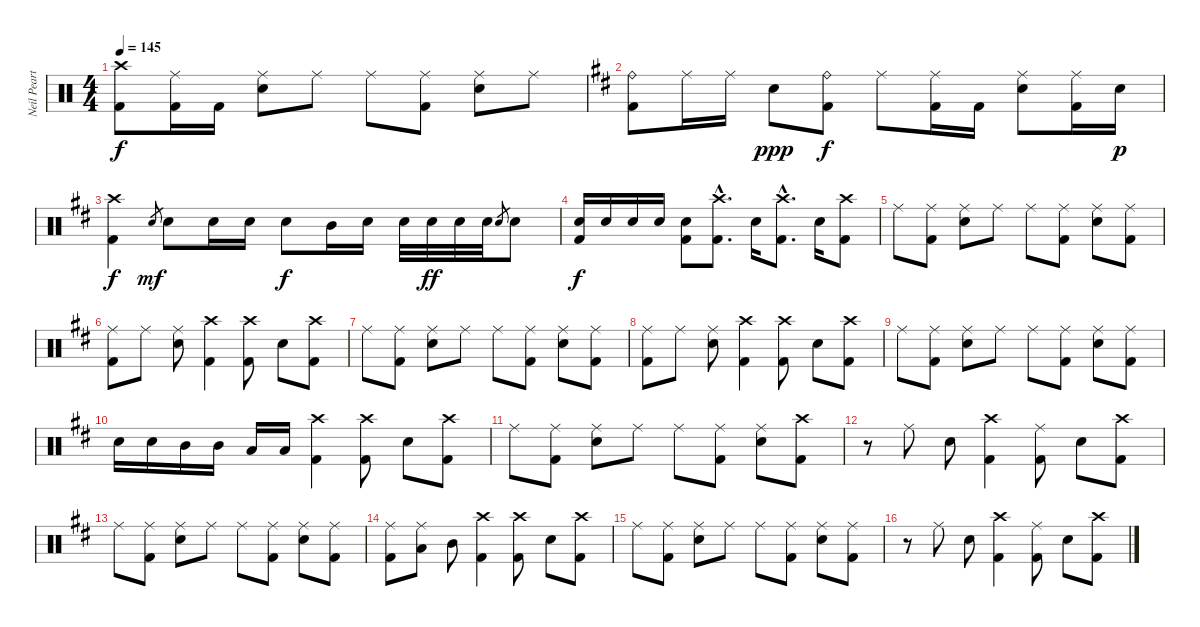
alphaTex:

\track ("Neil Peart" "Neil Peart") {instrument percussion}
\staff {score}
\articulation defaults
\ts (4 4)
\tempo 145
\clef neutral
\ks c
("Crash high (hit)" "Kick (hit) 2").8{dy f} ("Ride (middle)" "Kick (hit) 2").16 "Kick (hit) 2".16 ("Ride (middle)" "Snare (hit) 2").8 "Ride (middle)".8 "Ride (middle)".8 ("Ride (middle)" "Kick (hit) 2").8 ("Ride (middle)" "Snare (hit) 2").8 "Ride (middle)".8 |
\ks d
("Ride (bell)" "Kick (hit) 2").8 "Ride (middle)".16 "Ride (middle)".16 "Snare (hit) 2".8{dy ppp} ("Ride (bell)" "Kick (hit) 2").8{dy f} "Ride (middle)".8 ("Ride (middle)" "Kick (hit) 2").16 "Kick (hit) 2".16 ("Ride (middle)" "Snare (hit) 2").8 ("Ride (middle)" "Kick (hit) 2").16 "Snare (hit) 2".16{dy p} |
("Crash high (hit)" "Kick (hit) 2").4{dy f} "Snare (hit) 2".8{gr dy mf} "Snare (hit) 2".8 "Snare (hit) 2".16 "Snare (hit) 2".16 "Snare (hit) 2".8{dy f} "Mid Tom (hit)".16 "Snare (hit) 2".16 "Snare (hit) 2".32 "Snare (hit) 2".32{dy ff} "Snare (hit) 2".32 "Snare (hit) 2".32 "Snare (hit) 2".8{gr} "Snare (hit) 2".8 |
("Snare (hit) 2" "Kick (hit) 2").16{dy f} "Snare (hit) 2".16 "Snare (hit) 2".16 "Snare (hit) 2".16 ("Snare (hit) 2" "Kick (hit) 2").8 ("Crash high (hit)"{hac} "Kick (hit) 2"{hac}).8{d} "Snare (hit) 2".16 ("Crash high (hit)"{hac} "Kick (hit) 2"{hac}).8{d} "Snare (hit) 2".16 ("Crash high (hit)" "Kick (hit) 2").8 |
"Ride (middle)".8 ("Ride (middle)" "Kick (hit) 2").8 ("Ride (middle)" "Snare (hit) 2").8 "Ride (middle)".8 "Ride (middle)".8 ("Ride (middle)" "Kick (hit) 2").8 ("Ride (middle)" "Snare (hit) 2").8 ("Ride (middle)" "Kick (hit) 2").8 |
("Ride (middle)" "Kick (hit) 2").8 "Ride (middle)".8 ("Ride (middle)" "Snare (hit) 2").8 ("Crash high (hit)" "Kick (hit) 2").4 ("Crash high (hit)" "Kick (hit) 2").8 "Snare (hit) 2".8 ("Crash high (hit)" "Kick (hit) 2").8 |
"Ride (middle)".8 ("Ride (middle)" "Kick (hit) 2").8 ("Ride (middle)" "Snare (hit) 2").8 "Ride (middle)".8 "Ride (middle)".8 ("Ride (middle)" "Kick (hit) 2").8 ("Ride (middle)" "Snare (hit) 2").8 ("Ride (middle)" "Kick (hit) 2").8 |
("Ride (middle)" "Kick (hit) 2").8 "Ride (middle)".8 ("Ride (middle)" "Snare (hit) 2").8 ("Crash high (hit)" "Kick (hit) 2").4 ("Crash high (hit)" "Kick (hit) 2").8 "Snare (hit) 2".8 ("Crash high (hit)" "Kick (hit) 2").8 |
"Ride (middle)".8 ("Ride (middle)" "Kick (hit) 2").8 ("Ride (middle)" "Snare (hit) 2").8 "Ride (middle)".8 "Ride (middle)".8 ("Ride (middle)" "Kick (hit) 2").8 ("Ride (middle)" "Snare (hit) 2").8 ("Ride (middle)" "Kick (hit) 2").8 |
"Snare (hit) 2".16 "Snare (hit) 2".16 "Mid Tom (hit)".16 "Mid Tom (hit)".16 "Low Tom (hit)".16 "Low Tom (hit)".16 ("Crash high (hit)" "Kick (hit) 2").4 ("Crash high (hit)" "Kick (hit) 2").8 "Snare (hit) 2".8 ("Crash high (hit)" "Kick (hit) 2").8 |
"Ride (middle)".8 ("Ride (middle)" "Kick (hit) 2").8 ("Ride (middle)" "Snare (hit) 2").8 "Ride (middle)".8 "Ride (middle)".8 ("Ride (middle)" "Kick (hit) 2").8 ("Ride (middle)" "Snare (hit) 2").8 ("Crash high (hit)" "Kick (hit) 2").8 |
r.8 "Ride (middle)".8 "Snare (hit) 2".8 ("Crash high (hit)" "Kick (hit) 2").4 ("Ride (middle)" "Kick (hit) 2").8 "Snare (hit) 2".8 ("Crash high (hit)" "Kick (hit) 2").8 |
"Ride (middle)".8 ("Ride (middle)" "Kick (hit) 2").8 ("Ride (middle)" "Snare (hit) 2").8 "Ride (middle)".8 "Ride (middle)".8 ("Ride (middle)" "Kick (hit) 2").8 ("Ride (middle)" "Snare (hit) 2").8 ("Ride (middle)" "Kick (hit) 2").8 |
("Ride (middle)" "Kick (hit) 2").8 ("Ride (middle)" "Low Tom (hit)").8 "Mid Tom (hit)".8 ("Crash high (hit)" "Kick (hit) 2").4 ("Crash high (hit)" "Kick (hit) 2").8 "Snare (hit) 2".8 ("Crash high (hit)" "Kick (hit) 2").8 |
"Ride (middle)".8 ("Ride (middle)" "Kick (hit) 2").8 ("Ride (middle)" "Snare (hit) 2").8 "Ride (middle)".8 "Ride (middle)".8 ("Ride (middle)" "Kick (hit) 2").8 ("Ride (middle)" "Snare (hit) 2").8 ("Ride (middle)" "Kick (hit) 2").8 |
r.8 "Ride (middle)".8 "Snare (hit) 2".8 ("Crash high (hit)" "Kick (hit) 2").4 ("Ride (middle)" "Kick (hit) 2").8 "Snare (hit) 2".8 ("Crash high (hit)" "Kick (hit) 2").8
